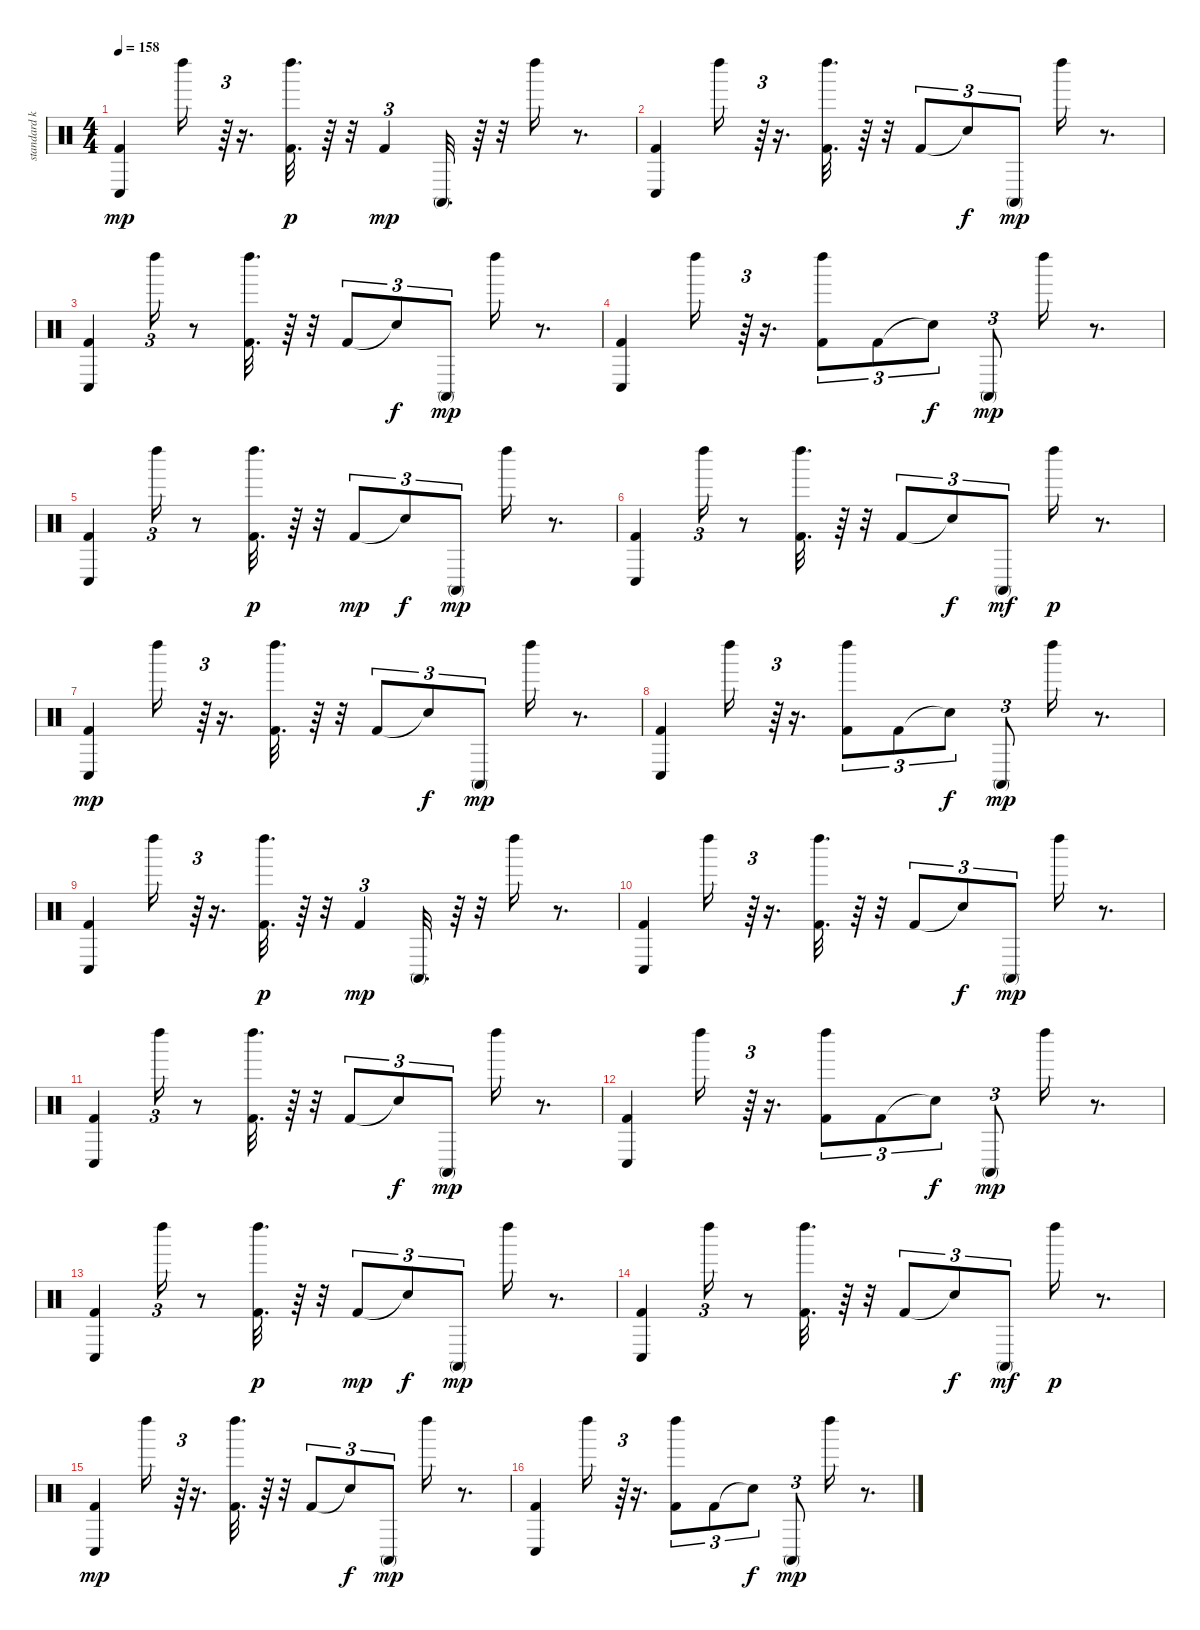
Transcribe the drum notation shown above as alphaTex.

\track ("standard kit" "standard k") {instrument percussion}
\staff {score}
\articulation defaults
\ts (4 4)
\tempo 158
\clef neutral
\ks c
("Conga low (hit)" "Kick (hit) 2").4{dy mp} "Left Maraca (hit)".16 r.64{tu (3 2)} r.16{d} ("Left Maraca (hit)" "Kick (hit) 2").32{d dy p} r.64 r.32 "Kick (hit) 2".4{tu (3 2) dy mp} "Conga high (mute)".32{d} r.64 r.32 "Left Maraca (hit)".16 r.8{d} |
("Conga low (hit)" "Kick (hit) 2").4 "Left Maraca (hit)".16 r.64{tu (3 2)} r.16{d} ("Left Maraca (hit)" "Kick (hit) 2").32{d} r.64 r.32 "Kick (hit) 2".8{tu (3 2)} "Snare (hit)"{t}.8{tu (3 2) dy f} "Conga high (mute)".8{tu (3 2) dy mp} "Left Maraca (hit)".16 r.8{d} |
("Conga low (hit)" "Kick (hit) 2").4 "Left Maraca (hit)".16{tu (3 2)} r.8 ("Left Maraca (hit)" "Kick (hit) 2").32{d} r.64 r.32 "Kick (hit) 2".8{tu (3 2)} "Snare (hit)"{t}.8{tu (3 2) dy f} "Conga high (mute)".8{tu (3 2) dy mp} "Left Maraca (hit)".16 r.8{d} |
("Conga low (hit)" "Kick (hit) 2").4 "Left Maraca (hit)".16 r.64{tu (3 2)} r.16{d} ("Left Maraca (hit)" "Kick (hit) 2").8{tu (3 2)} "Kick (hit) 2".8{tu (3 2)} "Snare (hit)"{t}.8{tu (3 2) dy f} "Conga high (mute)".8{tu (3 2) dy mp} "Left Maraca (hit)".16 r.8{d} |
("Conga low (hit)" "Kick (hit) 2").4 "Left Maraca (hit)".16{tu (3 2)} r.8 ("Left Maraca (hit)" "Kick (hit) 2").32{d dy p} r.64 r.32 "Kick (hit) 2".8{tu (3 2) dy mp} "Snare (hit)"{t}.8{tu (3 2) dy f} "Conga high (mute)".8{tu (3 2) dy mp} "Left Maraca (hit)".16 r.8{d} |
("Conga low (hit)" "Kick (hit) 2").4 "Left Maraca (hit)".16{tu (3 2)} r.8 ("Left Maraca (hit)" "Kick (hit) 2").32{d} r.64 r.32 "Kick (hit) 2".8{tu (3 2)} "Snare (hit)"{t}.8{tu (3 2) dy f} "Conga high (mute)".8{tu (3 2) dy mf} "Left Maraca (hit)".16{dy p} r.8{d} |
("Conga low (hit)" "Kick (hit) 2").4{dy mp} "Left Maraca (hit)".16 r.64{tu (3 2)} r.16{d} ("Left Maraca (hit)" "Kick (hit) 2").32{d} r.64 r.32 "Kick (hit) 2".8{tu (3 2)} "Snare (hit)"{t}.8{tu (3 2) dy f} "Conga high (mute)".8{tu (3 2) dy mp} "Left Maraca (hit)".16 r.8{d} |
("Conga low (hit)" "Kick (hit) 2").4 "Left Maraca (hit)".16 r.64{tu (3 2)} r.16{d} ("Left Maraca (hit)" "Kick (hit) 2").8{tu (3 2)} "Kick (hit) 2".8{tu (3 2)} "Snare (hit)"{t}.8{tu (3 2) dy f} "Conga high (mute)".8{tu (3 2) dy mp} "Left Maraca (hit)".16 r.8{d} |
("Conga low (hit)" "Kick (hit) 2").4 "Left Maraca (hit)".16 r.64{tu (3 2)} r.16{d} ("Left Maraca (hit)" "Kick (hit) 2").32{d dy p} r.64 r.32 "Kick (hit) 2".4{tu (3 2) dy mp} "Conga high (mute)".32{d} r.64 r.32 "Left Maraca (hit)".16 r.8{d} |
("Conga low (hit)" "Kick (hit) 2").4 "Left Maraca (hit)".16 r.64{tu (3 2)} r.16{d} ("Left Maraca (hit)" "Kick (hit) 2").32{d} r.64 r.32 "Kick (hit) 2".8{tu (3 2)} "Snare (hit)"{t}.8{tu (3 2) dy f} "Conga high (mute)".8{tu (3 2) dy mp} "Left Maraca (hit)".16 r.8{d} |
("Conga low (hit)" "Kick (hit) 2").4 "Left Maraca (hit)".16{tu (3 2)} r.8 ("Left Maraca (hit)" "Kick (hit) 2").32{d} r.64 r.32 "Kick (hit) 2".8{tu (3 2)} "Snare (hit)"{t}.8{tu (3 2) dy f} "Conga high (mute)".8{tu (3 2) dy mp} "Left Maraca (hit)".16 r.8{d} |
("Conga low (hit)" "Kick (hit) 2").4 "Left Maraca (hit)".16 r.64{tu (3 2)} r.16{d} ("Left Maraca (hit)" "Kick (hit) 2").8{tu (3 2)} "Kick (hit) 2".8{tu (3 2)} "Snare (hit)"{t}.8{tu (3 2) dy f} "Conga high (mute)".8{tu (3 2) dy mp} "Left Maraca (hit)".16 r.8{d} |
("Conga low (hit)" "Kick (hit) 2").4 "Left Maraca (hit)".16{tu (3 2)} r.8 ("Left Maraca (hit)" "Kick (hit) 2").32{d dy p} r.64 r.32 "Kick (hit) 2".8{tu (3 2) dy mp} "Snare (hit)"{t}.8{tu (3 2) dy f} "Conga high (mute)".8{tu (3 2) dy mp} "Left Maraca (hit)".16 r.8{d} |
("Conga low (hit)" "Kick (hit) 2").4 "Left Maraca (hit)".16{tu (3 2)} r.8 ("Left Maraca (hit)" "Kick (hit) 2").32{d} r.64 r.32 "Kick (hit) 2".8{tu (3 2)} "Snare (hit)"{t}.8{tu (3 2) dy f} "Conga high (mute)".8{tu (3 2) dy mf} "Left Maraca (hit)".16{dy p} r.8{d} |
("Conga low (hit)" "Kick (hit) 2").4{dy mp} "Left Maraca (hit)".16 r.64{tu (3 2)} r.16{d} ("Left Maraca (hit)" "Kick (hit) 2").32{d} r.64 r.32 "Kick (hit) 2".8{tu (3 2)} "Snare (hit)"{t}.8{tu (3 2) dy f} "Conga high (mute)".8{tu (3 2) dy mp} "Left Maraca (hit)".16 r.8{d} |
("Conga low (hit)" "Kick (hit) 2").4 "Left Maraca (hit)".16 r.64{tu (3 2)} r.16{d} ("Left Maraca (hit)" "Kick (hit) 2").8{tu (3 2)} "Kick (hit) 2".8{tu (3 2)} "Snare (hit)"{t}.8{tu (3 2) dy f} "Conga high (mute)".8{tu (3 2) dy mp} "Left Maraca (hit)".16 r.8{d}
